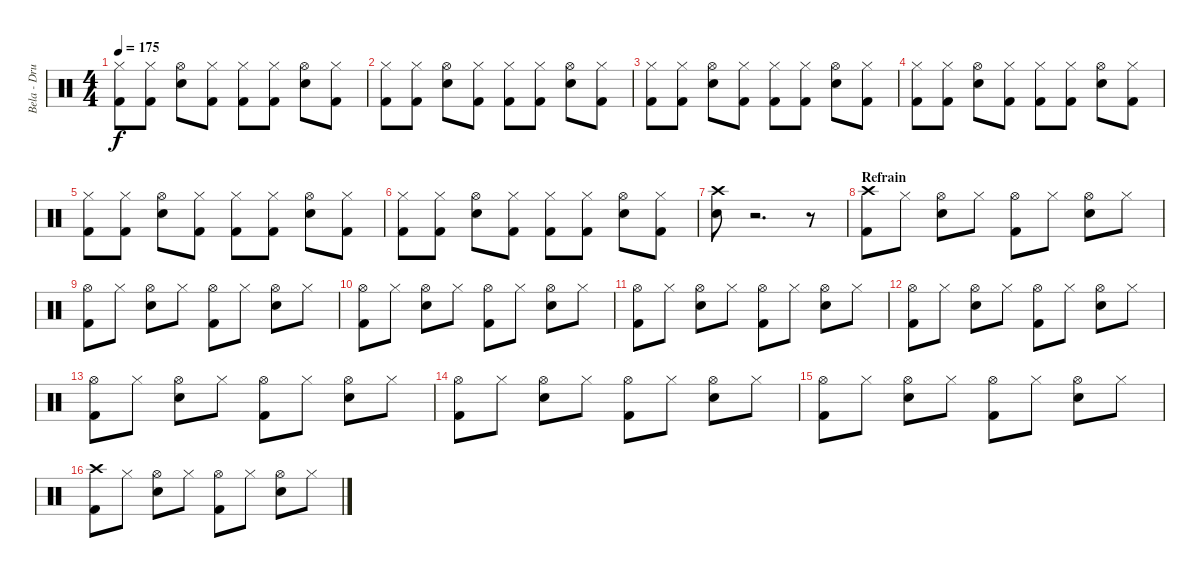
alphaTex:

\track ("Bela - Drums" "Bela - Dru") {instrument percussion}
\staff {score}
\articulation defaults
\ts (4 4)
\tempo 175
\clef neutral
\ks c
("Hi-Hat (closed)" "Kick (hit) 2").8{dy f} ("Hi-Hat (closed)" "Kick (hit) 2").8 ("Hi-Hat (open)" "Electric Snare (hit)").8 ("Hi-Hat (closed)" "Kick (hit) 2").8 ("Hi-Hat (closed)" "Kick (hit) 2").8 ("Hi-Hat (closed)" "Kick (hit) 2").8 ("Hi-Hat (open)" "Electric Snare (hit)").8 ("Hi-Hat (closed)" "Kick (hit) 2").8 |
("Hi-Hat (closed)" "Kick (hit) 2").8 ("Hi-Hat (closed)" "Kick (hit) 2").8 ("Hi-Hat (open)" "Electric Snare (hit)").8 ("Hi-Hat (closed)" "Kick (hit) 2").8 ("Hi-Hat (closed)" "Kick (hit) 2").8 ("Hi-Hat (closed)" "Kick (hit) 2").8 ("Hi-Hat (open)" "Electric Snare (hit)").8 ("Hi-Hat (closed)" "Kick (hit) 2").8 |
("Hi-Hat (closed)" "Kick (hit) 2").8 ("Hi-Hat (closed)" "Kick (hit) 2").8 ("Hi-Hat (open)" "Electric Snare (hit)").8 ("Hi-Hat (closed)" "Kick (hit) 2").8 ("Hi-Hat (closed)" "Kick (hit) 2").8 ("Hi-Hat (closed)" "Kick (hit) 2").8 ("Hi-Hat (open)" "Electric Snare (hit)").8 ("Hi-Hat (closed)" "Kick (hit) 2").8 |
("Hi-Hat (closed)" "Kick (hit) 2").8 ("Hi-Hat (closed)" "Kick (hit) 2").8 ("Hi-Hat (open)" "Electric Snare (hit)").8 ("Hi-Hat (closed)" "Kick (hit) 2").8 ("Hi-Hat (closed)" "Kick (hit) 2").8 ("Hi-Hat (closed)" "Kick (hit) 2").8 ("Hi-Hat (open)" "Electric Snare (hit)").8 ("Hi-Hat (closed)" "Kick (hit) 2").8 |
("Hi-Hat (closed)" "Kick (hit) 2").8 ("Hi-Hat (closed)" "Kick (hit) 2").8 ("Hi-Hat (open)" "Electric Snare (hit)").8 ("Hi-Hat (closed)" "Kick (hit) 2").8 ("Hi-Hat (closed)" "Kick (hit) 2").8 ("Hi-Hat (closed)" "Kick (hit) 2").8 ("Hi-Hat (open)" "Electric Snare (hit)").8 ("Hi-Hat (closed)" "Kick (hit) 2").8 |
("Hi-Hat (closed)" "Kick (hit) 2").8 ("Hi-Hat (closed)" "Kick (hit) 2").8 ("Hi-Hat (open)" "Electric Snare (hit)").8 ("Hi-Hat (closed)" "Kick (hit) 2").8 ("Hi-Hat (closed)" "Kick (hit) 2").8 ("Hi-Hat (closed)" "Kick (hit) 2").8 ("Hi-Hat (open)" "Electric Snare (hit)").8 ("Hi-Hat (closed)" "Kick (hit) 2").8 |
("Crash high (hit)" "Electric Snare (hit)").8 r.2{d} r.8 |
\section ("" "Refrain")
("Crash high (hit)" "Kick (hit) 2").8 "Hi-Hat (closed)".8 ("Hi-Hat (open)" "Electric Snare (hit)").8 "Hi-Hat (closed)".8 ("Hi-Hat (open)" "Kick (hit) 2").8 "Hi-Hat (closed)".8 ("Hi-Hat (open)" "Electric Snare (hit)").8 "Hi-Hat (closed)".8 |
("Hi-Hat (open)" "Kick (hit) 2").8 "Hi-Hat (closed)".8 ("Hi-Hat (open)" "Electric Snare (hit)").8 "Hi-Hat (closed)".8 ("Hi-Hat (open)" "Kick (hit) 2").8 "Hi-Hat (closed)".8 ("Hi-Hat (open)" "Electric Snare (hit)").8 "Hi-Hat (closed)".8 |
("Hi-Hat (open)" "Kick (hit) 2").8 "Hi-Hat (closed)".8 ("Hi-Hat (open)" "Electric Snare (hit)").8 "Hi-Hat (closed)".8 ("Hi-Hat (open)" "Kick (hit) 2").8 "Hi-Hat (closed)".8 ("Hi-Hat (open)" "Electric Snare (hit)").8 "Hi-Hat (closed)".8 |
("Hi-Hat (open)" "Kick (hit) 2").8 "Hi-Hat (closed)".8 ("Hi-Hat (open)" "Electric Snare (hit)").8 "Hi-Hat (closed)".8 ("Hi-Hat (open)" "Kick (hit) 2").8 "Hi-Hat (closed)".8 ("Hi-Hat (open)" "Electric Snare (hit)").8 "Hi-Hat (closed)".8 |
("Hi-Hat (open)" "Kick (hit) 2").8 "Hi-Hat (closed)".8 ("Hi-Hat (open)" "Electric Snare (hit)").8 "Hi-Hat (closed)".8 ("Hi-Hat (open)" "Kick (hit) 2").8 "Hi-Hat (closed)".8 ("Hi-Hat (open)" "Electric Snare (hit)").8 "Hi-Hat (closed)".8 |
("Hi-Hat (open)" "Kick (hit) 2").8 "Hi-Hat (closed)".8 ("Hi-Hat (open)" "Electric Snare (hit)").8 "Hi-Hat (closed)".8 ("Hi-Hat (open)" "Kick (hit) 2").8 "Hi-Hat (closed)".8 ("Hi-Hat (open)" "Electric Snare (hit)").8 "Hi-Hat (closed)".8 |
("Hi-Hat (open)" "Kick (hit) 2").8 "Hi-Hat (closed)".8 ("Hi-Hat (open)" "Electric Snare (hit)").8 "Hi-Hat (closed)".8 ("Hi-Hat (open)" "Kick (hit) 2").8 "Hi-Hat (closed)".8 ("Hi-Hat (open)" "Electric Snare (hit)").8 "Hi-Hat (closed)".8 |
("Hi-Hat (open)" "Kick (hit) 2").8 "Hi-Hat (closed)".8 ("Hi-Hat (open)" "Electric Snare (hit)").8 "Hi-Hat (closed)".8 ("Hi-Hat (open)" "Kick (hit) 2").8 "Hi-Hat (closed)".8 ("Hi-Hat (open)" "Electric Snare (hit)").8 "Hi-Hat (closed)".8 |
("Crash high (hit)" "Kick (hit) 2").8 "Hi-Hat (closed)".8 ("Hi-Hat (open)" "Electric Snare (hit)").8 "Hi-Hat (closed)".8 ("Hi-Hat (open)" "Kick (hit) 2").8 "Hi-Hat (closed)".8 ("Hi-Hat (open)" "Electric Snare (hit)").8 "Hi-Hat (closed)".8
